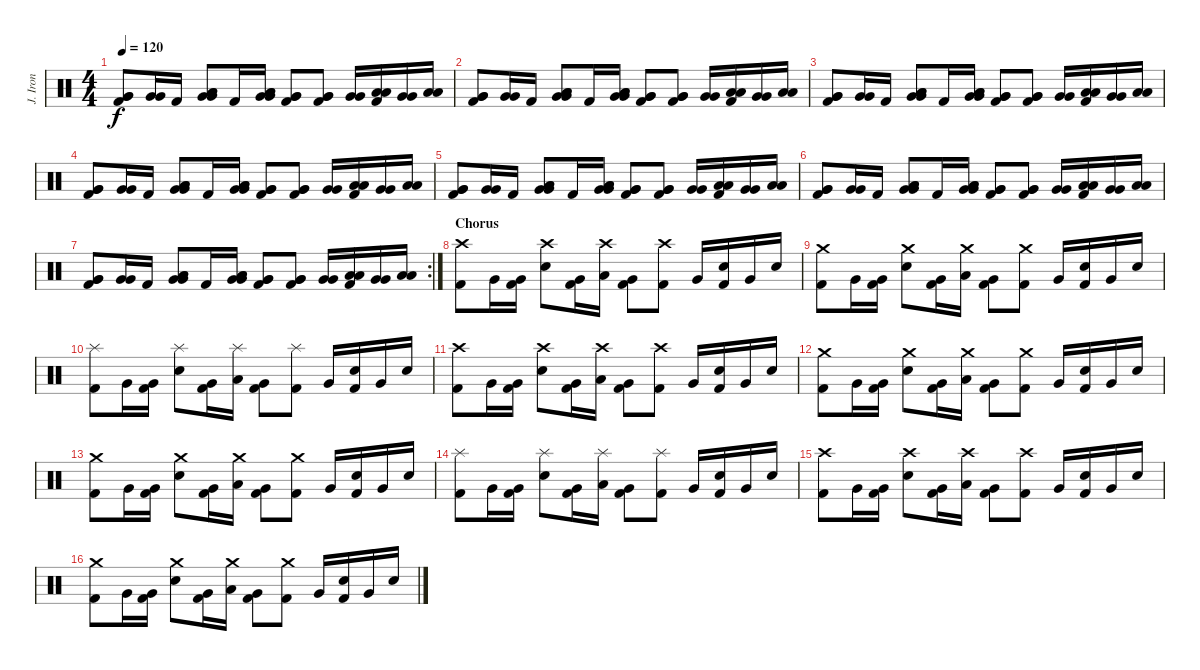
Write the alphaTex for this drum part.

\track ("J. Iron" "J. Iron") {instrument percussion}
\staff {score}
\articulation defaults
\ts (4 4)
\tempo 120
\clef neutral
\ks c
("Very Low Tom (hit)" "Very Low Tom (hit)" "Kick (hit) 2").8{dy f} ("Very Low Tom (hit)" "Very Low Tom (hit)").16 "Kick (hit) 2".16 ("Low Tom (hit)" "Very Low Tom (hit)" "Very Low Tom (hit)" "Low Tom (hit)").8 "Kick (hit) 2".16 ("Low Tom (hit)" "Very Low Tom (hit)" "Very Low Tom (hit)" "Low Tom (hit)").16 ("Very Low Tom (hit)" "Very Low Tom (hit)" "Kick (hit) 2").8 ("Very Low Tom (hit)" "Very Low Tom (hit)" "Kick (hit) 2").8 ("Very Low Tom (hit)" "Very Low Tom (hit)").16 ("Low Tom (hit)" "Low Tom (hit)" "Kick (hit) 2").16 ("Very Low Tom (hit)" "Very Low Tom (hit)").16 ("Low Tom (hit)" "Low Tom (hit)").16 |
("Very Low Tom (hit)" "Very Low Tom (hit)" "Kick (hit) 2").8 ("Very Low Tom (hit)" "Very Low Tom (hit)").16 "Kick (hit) 2".16 ("Low Tom (hit)" "Very Low Tom (hit)" "Very Low Tom (hit)" "Low Tom (hit)").8 "Kick (hit) 2".16 ("Low Tom (hit)" "Very Low Tom (hit)" "Very Low Tom (hit)" "Low Tom (hit)").16 ("Very Low Tom (hit)" "Very Low Tom (hit)" "Kick (hit) 2").8 ("Very Low Tom (hit)" "Very Low Tom (hit)" "Kick (hit) 2").8 ("Very Low Tom (hit)" "Very Low Tom (hit)").16 ("Low Tom (hit)" "Low Tom (hit)" "Kick (hit) 2").16 ("Very Low Tom (hit)" "Very Low Tom (hit)").16 ("Low Tom (hit)" "Low Tom (hit)").16 |
("Very Low Tom (hit)" "Very Low Tom (hit)" "Kick (hit) 2").8 ("Very Low Tom (hit)" "Very Low Tom (hit)").16 "Kick (hit) 2".16 ("Low Tom (hit)" "Very Low Tom (hit)" "Very Low Tom (hit)" "Low Tom (hit)").8 "Kick (hit) 2".16 ("Low Tom (hit)" "Very Low Tom (hit)" "Very Low Tom (hit)" "Low Tom (hit)").16 ("Very Low Tom (hit)" "Very Low Tom (hit)" "Kick (hit) 2").8 ("Very Low Tom (hit)" "Very Low Tom (hit)" "Kick (hit) 2").8 ("Very Low Tom (hit)" "Very Low Tom (hit)").16 ("Low Tom (hit)" "Low Tom (hit)" "Kick (hit) 2").16 ("Very Low Tom (hit)" "Very Low Tom (hit)").16 ("Low Tom (hit)" "Low Tom (hit)").16 |
("Very Low Tom (hit)" "Very Low Tom (hit)" "Kick (hit) 2").8 ("Very Low Tom (hit)" "Very Low Tom (hit)").16 "Kick (hit) 2".16 ("Low Tom (hit)" "Very Low Tom (hit)" "Very Low Tom (hit)" "Low Tom (hit)").8 "Kick (hit) 2".16 ("Low Tom (hit)" "Very Low Tom (hit)" "Very Low Tom (hit)" "Low Tom (hit)").16 ("Very Low Tom (hit)" "Very Low Tom (hit)" "Kick (hit) 2").8 ("Very Low Tom (hit)" "Very Low Tom (hit)" "Kick (hit) 2").8 ("Very Low Tom (hit)" "Very Low Tom (hit)").16 ("Low Tom (hit)" "Low Tom (hit)" "Kick (hit) 2").16 ("Very Low Tom (hit)" "Very Low Tom (hit)").16 ("Low Tom (hit)" "Low Tom (hit)").16 |
("Very Low Tom (hit)" "Very Low Tom (hit)" "Kick (hit) 2").8 ("Very Low Tom (hit)" "Very Low Tom (hit)").16 "Kick (hit) 2".16 ("Low Tom (hit)" "Very Low Tom (hit)" "Very Low Tom (hit)" "Low Tom (hit)").8 "Kick (hit) 2".16 ("Low Tom (hit)" "Very Low Tom (hit)" "Very Low Tom (hit)" "Low Tom (hit)").16 ("Very Low Tom (hit)" "Very Low Tom (hit)" "Kick (hit) 2").8 ("Very Low Tom (hit)" "Very Low Tom (hit)" "Kick (hit) 2").8 ("Very Low Tom (hit)" "Very Low Tom (hit)").16 ("Low Tom (hit)" "Low Tom (hit)" "Kick (hit) 2").16 ("Very Low Tom (hit)" "Very Low Tom (hit)").16 ("Low Tom (hit)" "Low Tom (hit)").16 |
("Very Low Tom (hit)" "Very Low Tom (hit)" "Kick (hit) 2").8 ("Very Low Tom (hit)" "Very Low Tom (hit)").16 "Kick (hit) 2".16 ("Low Tom (hit)" "Very Low Tom (hit)" "Very Low Tom (hit)" "Low Tom (hit)").8 "Kick (hit) 2".16 ("Low Tom (hit)" "Very Low Tom (hit)" "Very Low Tom (hit)" "Low Tom (hit)").16 ("Very Low Tom (hit)" "Very Low Tom (hit)" "Kick (hit) 2").8 ("Very Low Tom (hit)" "Very Low Tom (hit)" "Kick (hit) 2").8 ("Very Low Tom (hit)" "Very Low Tom (hit)").16 ("Low Tom (hit)" "Low Tom (hit)" "Kick (hit) 2").16 ("Very Low Tom (hit)" "Very Low Tom (hit)").16 ("Low Tom (hit)" "Low Tom (hit)").16 |
\rc 2
("Very Low Tom (hit)" "Very Low Tom (hit)" "Kick (hit) 2").8 ("Very Low Tom (hit)" "Very Low Tom (hit)").16 "Kick (hit) 2".16 ("Low Tom (hit)" "Very Low Tom (hit)" "Very Low Tom (hit)" "Low Tom (hit)").8 "Kick (hit) 2".16 ("Low Tom (hit)" "Very Low Tom (hit)" "Very Low Tom (hit)" "Low Tom (hit)").16 ("Very Low Tom (hit)" "Very Low Tom (hit)" "Kick (hit) 2").8 ("Very Low Tom (hit)" "Very Low Tom (hit)" "Kick (hit) 2").8 ("Very Low Tom (hit)" "Very Low Tom (hit)").16 ("Low Tom (hit)" "Low Tom (hit)" "Kick (hit) 2").16 ("Very Low Tom (hit)" "Very Low Tom (hit)").16 ("Low Tom (hit)" "Low Tom (hit)").16 |
\section ("" "Chorus")
("Crash high (hit)" "Kick (hit) 2").8 "Very Low Tom (hit)".16 ("Very Low Tom (hit)" "Kick (hit) 2").16 ("Crash high (hit)" "Snare (hit) 2").8 ("Very Low Tom (hit)" "Kick (hit) 2").16 ("Crash high (hit)" "Low Tom (hit)").16 ("Very Low Tom (hit)" "Kick (hit) 2").8 ("Crash high (hit)" "Kick (hit) 2").8 "Very Low Tom (hit)".16 ("Snare (hit) 2" "Kick (hit) 2").16 "Very Low Tom (hit)".16 "Snare (hit) 2".16 |
("Crash medium (hit)" "Kick (hit) 2").8 "Very Low Tom (hit)".16 ("Very Low Tom (hit)" "Kick (hit) 2").16 ("Crash medium (hit)" "Snare (hit) 2").8 ("Very Low Tom (hit)" "Kick (hit) 2").16 ("Crash medium (hit)" "Low Tom (hit)").16 ("Very Low Tom (hit)" "Kick (hit) 2").8 ("Crash medium (hit)" "Kick (hit) 2").8 "Very Low Tom (hit)".16 ("Snare (hit) 2" "Kick (hit) 2").16 "Very Low Tom (hit)".16 "Snare (hit) 2".16 |
("Splash (hit)" "Kick (hit) 2").8 "Very Low Tom (hit)".16 ("Very Low Tom (hit)" "Kick (hit) 2").16 ("Splash (hit)" "Snare (hit) 2").8 ("Very Low Tom (hit)" "Kick (hit) 2").16 ("Splash (hit)" "Low Tom (hit)").16 ("Very Low Tom (hit)" "Kick (hit) 2").8 ("Splash (hit)" "Kick (hit) 2").8 "Very Low Tom (hit)".16 ("Snare (hit) 2" "Kick (hit) 2").16 "Very Low Tom (hit)".16 "Snare (hit) 2".16 |
("Crash high (hit)" "Kick (hit) 2").8 "Very Low Tom (hit)".16 ("Very Low Tom (hit)" "Kick (hit) 2").16 ("Crash high (hit)" "Snare (hit) 2").8 ("Very Low Tom (hit)" "Kick (hit) 2").16 ("Crash high (hit)" "Low Tom (hit)").16 ("Very Low Tom (hit)" "Kick (hit) 2").8 ("Crash high (hit)" "Kick (hit) 2").8 "Very Low Tom (hit)".16 ("Snare (hit) 2" "Kick (hit) 2").16 "Very Low Tom (hit)".16 "Snare (hit) 2".16 |
("Crash medium (hit)" "Kick (hit) 2").8 "Very Low Tom (hit)".16 ("Very Low Tom (hit)" "Kick (hit) 2").16 ("Crash medium (hit)" "Snare (hit) 2").8 ("Very Low Tom (hit)" "Kick (hit) 2").16 ("Crash medium (hit)" "Low Tom (hit)").16 ("Very Low Tom (hit)" "Kick (hit) 2").8 ("Crash medium (hit)" "Kick (hit) 2").8 "Very Low Tom (hit)".16 ("Snare (hit) 2" "Kick (hit) 2").16 "Very Low Tom (hit)".16 "Snare (hit) 2".16 |
("Crash medium (hit)" "Kick (hit) 2").8 "Very Low Tom (hit)".16 ("Very Low Tom (hit)" "Kick (hit) 2").16 ("Crash medium (hit)" "Snare (hit) 2").8 ("Very Low Tom (hit)" "Kick (hit) 2").16 ("Crash medium (hit)" "Low Tom (hit)").16 ("Very Low Tom (hit)" "Kick (hit) 2").8 ("Crash medium (hit)" "Kick (hit) 2").8 "Very Low Tom (hit)".16 ("Snare (hit) 2" "Kick (hit) 2").16 "Very Low Tom (hit)".16 "Snare (hit) 2".16 |
("Splash (hit)" "Kick (hit) 2").8 "Very Low Tom (hit)".16 ("Very Low Tom (hit)" "Kick (hit) 2").16 ("Splash (hit)" "Snare (hit) 2").8 ("Very Low Tom (hit)" "Kick (hit) 2").16 ("Splash (hit)" "Low Tom (hit)").16 ("Very Low Tom (hit)" "Kick (hit) 2").8 ("Splash (hit)" "Kick (hit) 2").8 "Very Low Tom (hit)".16 ("Snare (hit) 2" "Kick (hit) 2").16 "Very Low Tom (hit)".16 "Snare (hit) 2".16 |
("Crash high (hit)" "Kick (hit) 2").8 "Very Low Tom (hit)".16 ("Very Low Tom (hit)" "Kick (hit) 2").16 ("Crash high (hit)" "Snare (hit) 2").8 ("Very Low Tom (hit)" "Kick (hit) 2").16 ("Crash high (hit)" "Low Tom (hit)").16 ("Very Low Tom (hit)" "Kick (hit) 2").8 ("Crash high (hit)" "Kick (hit) 2").8 "Very Low Tom (hit)".16 ("Snare (hit) 2" "Kick (hit) 2").16 "Very Low Tom (hit)".16 "Snare (hit) 2".16 |
("Crash medium (hit)" "Kick (hit) 2").8 "Very Low Tom (hit)".16 ("Very Low Tom (hit)" "Kick (hit) 2").16 ("Crash medium (hit)" "Snare (hit) 2").8 ("Very Low Tom (hit)" "Kick (hit) 2").16 ("Crash medium (hit)" "Low Tom (hit)").16 ("Very Low Tom (hit)" "Kick (hit) 2").8 ("Crash medium (hit)" "Kick (hit) 2").8 "Very Low Tom (hit)".16 ("Snare (hit) 2" "Kick (hit) 2").16 "Very Low Tom (hit)".16 "Snare (hit) 2".16
